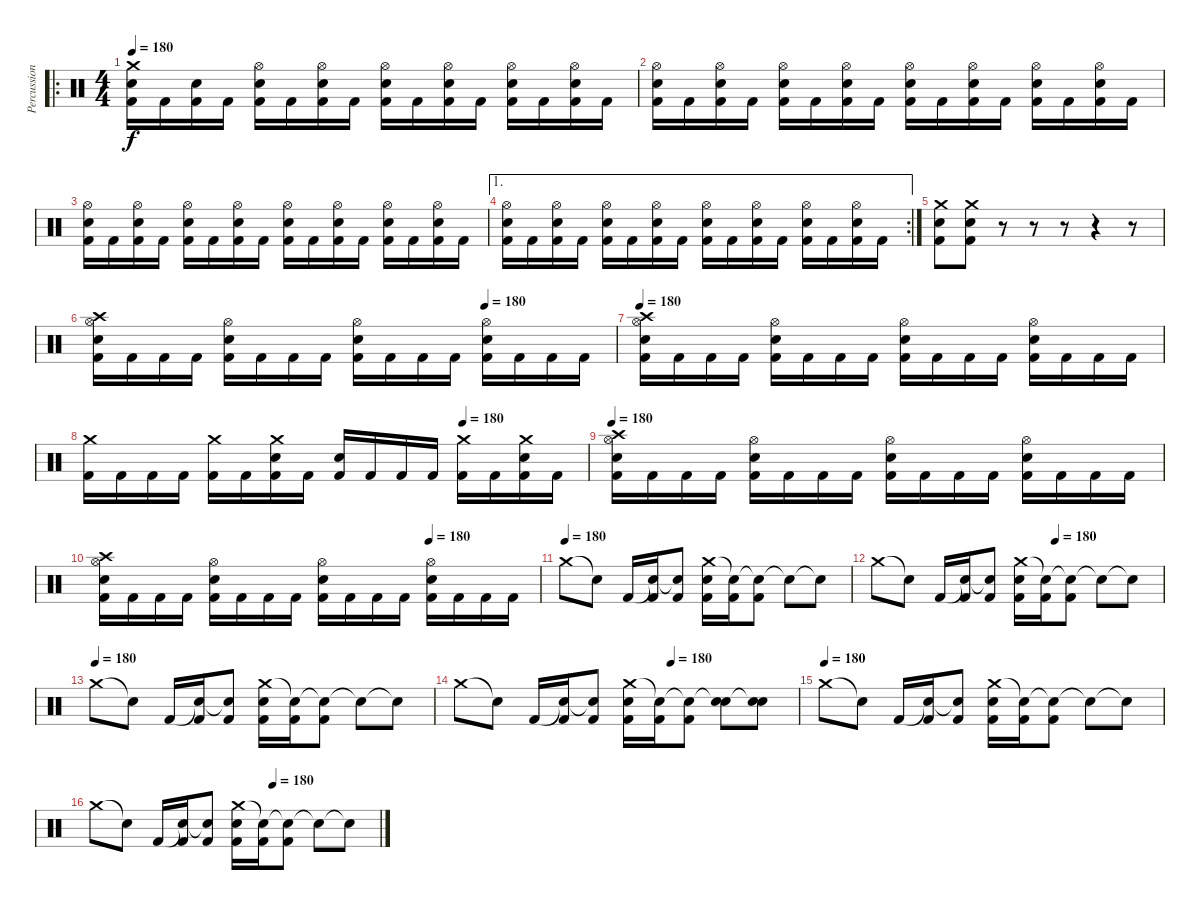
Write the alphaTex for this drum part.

\track ("Percussion" "Percussion") {instrument percussion}
\staff {score}
\articulation defaults
\ro
\ts (4 4)
\tempo 180
\clef neutral
\ks c
("Crash medium (hit)" "Electric Snare (hit)" "Kick (hit) 2").16{dy f} "Kick (hit) 2".16 ("Electric Snare (hit)" "Kick (hit) 2").16 "Kick (hit) 2".16 ("Hi-Hat (open)" "Electric Snare (hit)" "Kick (hit) 2").16 "Kick (hit) 2".16 ("Hi-Hat (open)" "Electric Snare (hit)" "Kick (hit) 2").16 "Kick (hit) 2".16 ("Hi-Hat (open)" "Electric Snare (hit)" "Kick (hit) 2").16 "Kick (hit) 2".16 ("Hi-Hat (open)" "Electric Snare (hit)" "Kick (hit) 2").16 "Kick (hit) 2".16 ("Hi-Hat (open)" "Electric Snare (hit)" "Kick (hit) 2").16 "Kick (hit) 2".16 ("Hi-Hat (open)" "Electric Snare (hit)" "Kick (hit) 2").16 "Kick (hit) 2".16 |
("Hi-Hat (open)" "Electric Snare (hit)" "Kick (hit) 2").16 "Kick (hit) 2".16 ("Hi-Hat (open)" "Electric Snare (hit)" "Kick (hit) 2").16 "Kick (hit) 2".16 ("Hi-Hat (open)" "Electric Snare (hit)" "Kick (hit) 2").16 "Kick (hit) 2".16 ("Hi-Hat (open)" "Electric Snare (hit)" "Kick (hit) 2").16 "Kick (hit) 2".16 ("Hi-Hat (open)" "Electric Snare (hit)" "Kick (hit) 2").16 "Kick (hit) 2".16 ("Hi-Hat (open)" "Electric Snare (hit)" "Kick (hit) 2").16 "Kick (hit) 2".16 ("Hi-Hat (open)" "Electric Snare (hit)" "Kick (hit) 2").16 "Kick (hit) 2".16 ("Hi-Hat (open)" "Electric Snare (hit)" "Kick (hit) 2").16 "Kick (hit) 2".16 |
("Hi-Hat (open)" "Electric Snare (hit)" "Kick (hit) 2").16 "Kick (hit) 2".16 ("Hi-Hat (open)" "Electric Snare (hit)" "Kick (hit) 2").16 "Kick (hit) 2".16 ("Hi-Hat (open)" "Electric Snare (hit)" "Kick (hit) 2").16 "Kick (hit) 2".16 ("Hi-Hat (open)" "Electric Snare (hit)" "Kick (hit) 2").16 "Kick (hit) 2".16 ("Hi-Hat (open)" "Electric Snare (hit)" "Kick (hit) 2").16 "Kick (hit) 2".16 ("Hi-Hat (open)" "Electric Snare (hit)" "Kick (hit) 2").16 "Kick (hit) 2".16 ("Hi-Hat (open)" "Electric Snare (hit)" "Kick (hit) 2").16 "Kick (hit) 2".16 ("Hi-Hat (open)" "Electric Snare (hit)" "Kick (hit) 2").16 "Kick (hit) 2".16 |
\ae 1
\rc 2
("Hi-Hat (open)" "Electric Snare (hit)" "Kick (hit) 2").16 "Kick (hit) 2".16 ("Hi-Hat (open)" "Electric Snare (hit)" "Kick (hit) 2").16 "Kick (hit) 2".16 ("Hi-Hat (open)" "Electric Snare (hit)" "Kick (hit) 2").16 "Kick (hit) 2".16 ("Hi-Hat (open)" "Electric Snare (hit)" "Kick (hit) 2").16 "Kick (hit) 2".16 ("Hi-Hat (open)" "Electric Snare (hit)" "Kick (hit) 2").16 "Kick (hit) 2".16 ("Hi-Hat (open)" "Electric Snare (hit)" "Kick (hit) 2").16 "Kick (hit) 2".16 ("Hi-Hat (open)" "Electric Snare (hit)" "Kick (hit) 2").16 "Kick (hit) 2".16 ("Hi-Hat (open)" "Electric Snare (hit)" "Kick (hit) 2").16 "Kick (hit) 2".16 |
("Crash medium (hit)" "Kick (hit) 2" "Electric Snare (hit)").8 ("Crash medium (hit)" "Kick (hit) 2" "Electric Snare (hit)").8 r.8 r.8 r.8 r.4 r.8 |
\tempo (180 0.75)
("Crash high (hit)" "Hi-Hat (open)" "Electric Snare (hit)" "Kick (hit) 2").16 "Kick (hit) 2".16 "Kick (hit) 2".16 "Kick (hit) 2".16 ("Hi-Hat (open)" "Electric Snare (hit)" "Kick (hit) 2").16 "Kick (hit) 2".16 "Kick (hit) 2".16 "Kick (hit) 2".16 ("Hi-Hat (open)" "Electric Snare (hit)" "Kick (hit) 2").16 "Kick (hit) 2".16 "Kick (hit) 2".16 "Kick (hit) 2".16 ("Hi-Hat (open)" "Electric Snare (hit)" "Kick (hit) 2").16 "Kick (hit) 2".16 "Kick (hit) 2".16 "Kick (hit) 2".16 |
\tempo 180
("Crash high (hit)" "Hi-Hat (open)" "Electric Snare (hit)" "Kick (hit) 2").16 "Kick (hit) 2".16 "Kick (hit) 2".16 "Kick (hit) 2".16 ("Hi-Hat (open)" "Electric Snare (hit)" "Kick (hit) 2").16 "Kick (hit) 2".16 "Kick (hit) 2".16 "Kick (hit) 2".16 ("Hi-Hat (open)" "Electric Snare (hit)" "Kick (hit) 2").16 "Kick (hit) 2".16 "Kick (hit) 2".16 "Kick (hit) 2".16 ("Hi-Hat (open)" "Electric Snare (hit)" "Kick (hit) 2").16 "Kick (hit) 2".16 "Kick (hit) 2".16 "Kick (hit) 2".16 |
\tempo (180 0.75)
("Crash medium (hit)" "Kick (hit) 2").16 "Kick (hit) 2".16 "Kick (hit) 2".16 "Kick (hit) 2".16 ("Crash medium (hit)" "Kick (hit) 2").16 "Kick (hit) 2".16 ("Crash medium (hit)" "Electric Snare (hit)" "Kick (hit) 2").16 "Kick (hit) 2".16 ("Electric Snare (hit)" "Kick (hit) 2").16 "Kick (hit) 2".16 "Kick (hit) 2".16 "Kick (hit) 2".16 ("Crash medium (hit)" "Kick (hit) 2").16 "Kick (hit) 2".16 ("Crash medium (hit)" "Electric Snare (hit)" "Kick (hit) 2").16 "Kick (hit) 2".16 |
\tempo 180
("Crash high (hit)" "Hi-Hat (open)" "Electric Snare (hit)" "Kick (hit) 2").16 "Kick (hit) 2".16 "Kick (hit) 2".16 "Kick (hit) 2".16 ("Hi-Hat (open)" "Electric Snare (hit)" "Kick (hit) 2").16 "Kick (hit) 2".16 "Kick (hit) 2".16 "Kick (hit) 2".16 ("Hi-Hat (open)" "Electric Snare (hit)" "Kick (hit) 2").16 "Kick (hit) 2".16 "Kick (hit) 2".16 "Kick (hit) 2".16 ("Hi-Hat (open)" "Electric Snare (hit)" "Kick (hit) 2").16 "Kick (hit) 2".16 "Kick (hit) 2".16 "Kick (hit) 2".16 |
\tempo (180 0.75)
("Crash high (hit)" "Hi-Hat (open)" "Electric Snare (hit)" "Kick (hit) 2").16 "Kick (hit) 2".16 "Kick (hit) 2".16 "Kick (hit) 2".16 ("Hi-Hat (open)" "Electric Snare (hit)" "Kick (hit) 2").16 "Kick (hit) 2".16 "Kick (hit) 2".16 "Kick (hit) 2".16 ("Hi-Hat (open)" "Electric Snare (hit)" "Kick (hit) 2").16 "Kick (hit) 2".16 "Kick (hit) 2".16 "Kick (hit) 2".16 ("Hi-Hat (open)" "Electric Snare (hit)" "Kick (hit) 2").16 "Kick (hit) 2".16 "Kick (hit) 2".16 "Kick (hit) 2".16 |
\tempo (180)
"Crash medium (hit)".8 "Snare (hit)"{t}.8 "Kick (hit) 2".16 ("Snare (hit)"{t} "Kick (hit) 2").16 ("Snare (hit)"{t} "Kick (hit) 2").8 ("Crash medium (hit)" "Electric Snare (hit)" "Kick (hit) 2").16 ("Snare (hit)"{t} "Kick (hit) 2").16 ("Snare (hit)"{t} "Kick (hit) 2").8 "Snare (hit)"{t}.8 "Snare (hit)"{t}.8 |
\tempo (180 0.625)
"Crash medium (hit)".8 "Snare (hit)"{t}.8 "Kick (hit) 2".16 ("Snare (hit)"{t} "Kick (hit) 2").16 ("Snare (hit)"{t} "Kick (hit) 2").8 ("Crash medium (hit)" "Electric Snare (hit)" "Kick (hit) 2").16 ("Snare (hit)"{t} "Kick (hit) 2").16 ("Snare (hit)"{t} "Kick (hit) 2").8 "Snare (hit)"{t}.8 "Snare (hit)"{t}.8 |
\tempo (180)
"Crash medium (hit)".8 "Snare (hit)"{t}.8 "Kick (hit) 2".16 ("Snare (hit)"{t} "Kick (hit) 2").16 ("Snare (hit)"{t} "Kick (hit) 2").8 ("Crash medium (hit)" "Electric Snare (hit)" "Kick (hit) 2").16 ("Snare (hit)"{t} "Kick (hit) 2").16 ("Snare (hit)"{t} "Kick (hit) 2").8 "Snare (hit)"{t}.8 "Snare (hit)"{t}.8 |
\tempo (180 0.625)
"Crash medium (hit)".8 "Snare (hit)"{t}.8 "Kick (hit) 2".16 ("Snare (hit)"{t} "Kick (hit) 2").16 ("Snare (hit)"{t} "Kick (hit) 2").8 ("Crash medium (hit)" "Electric Snare (hit)" "Kick (hit) 2").16 ("Snare (hit)"{t} "Kick (hit) 2").16 ("Snare (hit)"{t} "Kick (hit) 2").8 ("Snare (hit)"{t} "Electric Snare (hit)").8 ("Snare (hit)"{t} "Electric Snare (hit)").8 |
\tempo (180)
"Crash medium (hit)".8 "Snare (hit)"{t}.8 "Kick (hit) 2".16 ("Snare (hit)"{t} "Kick (hit) 2").16 ("Snare (hit)"{t} "Kick (hit) 2").8 ("Crash medium (hit)" "Electric Snare (hit)" "Kick (hit) 2").16 ("Snare (hit)"{t} "Kick (hit) 2").16 ("Snare (hit)"{t} "Kick (hit) 2").8 "Snare (hit)"{t}.8 "Snare (hit)"{t}.8 |
\tempo (180 0.625)
"Crash medium (hit)".8 "Snare (hit)"{t}.8 "Kick (hit) 2".16 ("Snare (hit)"{t} "Kick (hit) 2").16 ("Snare (hit)"{t} "Kick (hit) 2").8 ("Crash medium (hit)" "Electric Snare (hit)" "Kick (hit) 2").16 ("Snare (hit)"{t} "Kick (hit) 2").16 ("Snare (hit)"{t} "Kick (hit) 2").8 "Snare (hit)"{t}.8 "Snare (hit)"{t}.8
